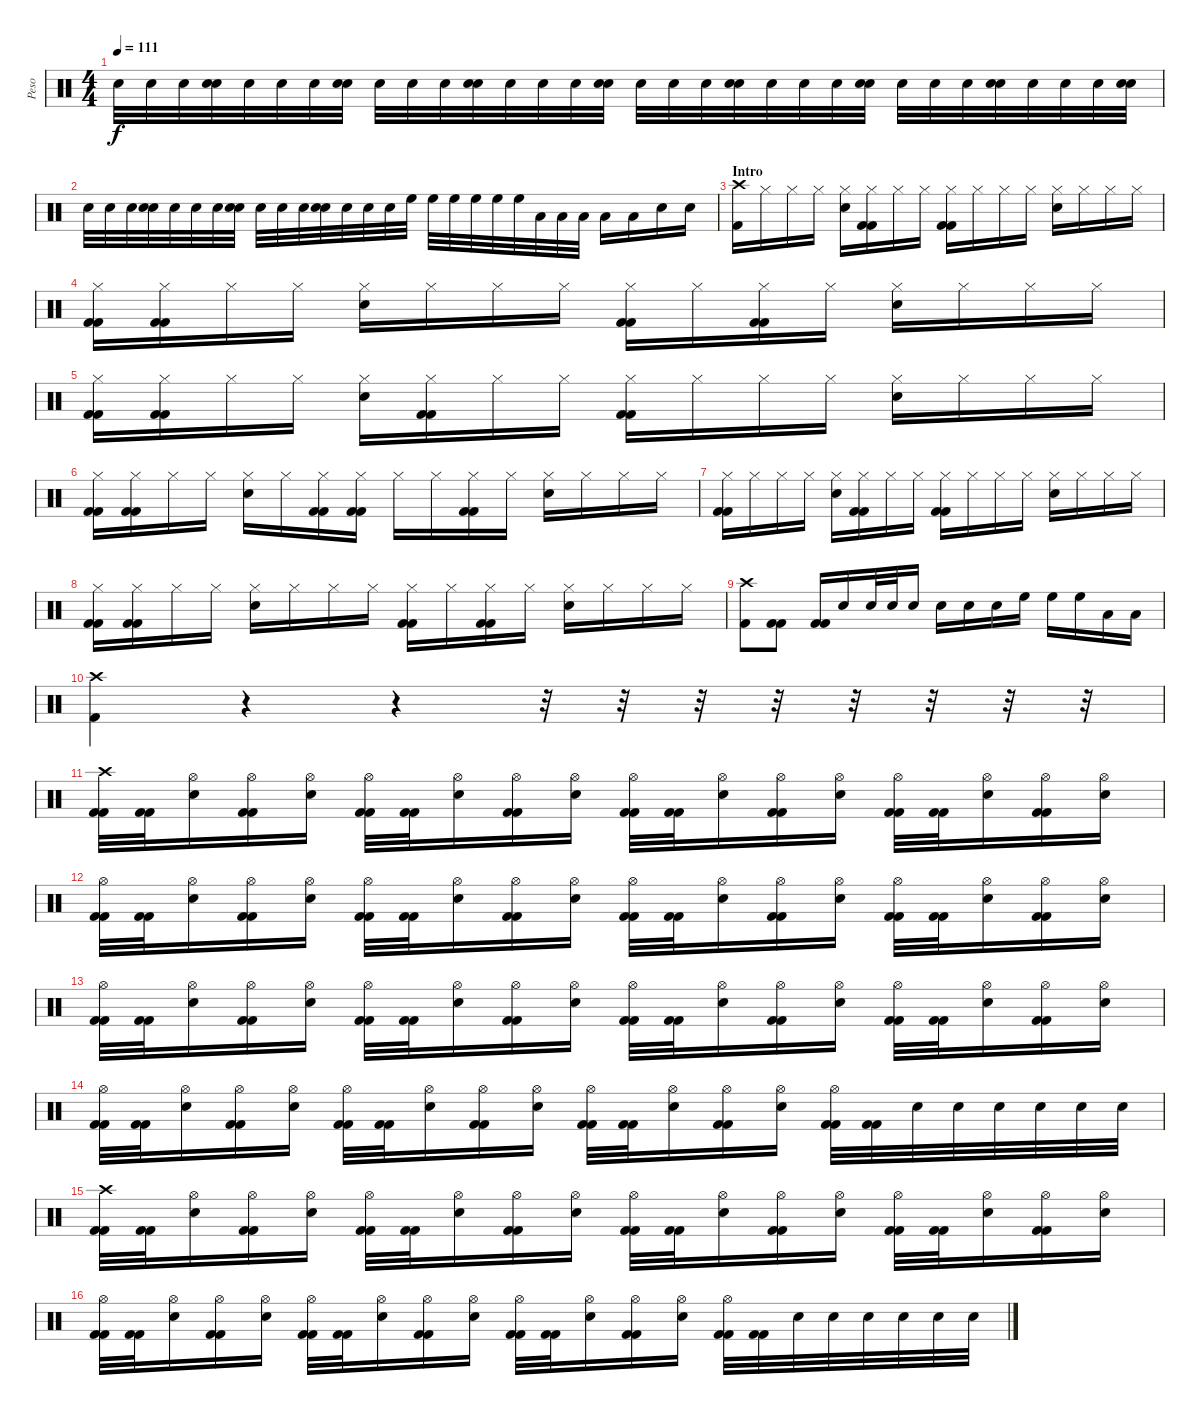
\track ("Peso" "Peso") {instrument percussion}
\staff {score}
\articulation defaults
\ts (4 4)
\tempo 111
\clef neutral
\ks c "Snare (hit) 2".32{dy f volume 3} "Snare (hit) 2".32 "Snare (hit) 2".32
("Snare (hit) 2" "Snare (hit) 2").32 "Snare (hit) 2".32{volume 6} "Snare (hit) 2".32 "Snare (hit) 2".32 ("Snare (hit) 2" "Snare (hit) 2").32 "Snare (hit) 2".32{volume 9} "Snare (hit) 2".32 "Snare (hit) 2".32 ("Snare (hit) 2" "Snare (hit) 2").32 "Snare (hit) 2".32{volume 12} "Snare (hit) 2".32 "Snare (hit) 2".32 ("Snare (hit) 2" "Snare (hit) 2").32 "Snare (hit) 2".32{volume 15} "Snare (hit) 2".32 "Snare (hit) 2".32 ("Snare (hit) 2" "Snare (hit) 2").32 "Snare (hit) 2".32 "Snare (hit) 2".32 "Snare (hit) 2".32 ("Snare (hit) 2" "Snare (hit) 2").32 "Snare (hit) 2".32 "Snare (hit) 2".32 "Snare (hit) 2".32 ("Snare (hit) 2" "Snare (hit) 2").32 "Snare (hit) 2".32 "Snare (hit) 2".32 "Snare (hit) 2".32 ("Snare (hit) 2" "Snare (hit) 2").32 |
"Snare (hit) 2".32 "Snare (hit) 2".32 "Snare (hit) 2".32 ("Snare (hit) 2" "Snare (hit) 2").32 "Snare (hit) 2".32 "Snare (hit) 2".32 "Snare (hit) 2".32 ("Snare (hit) 2" "Snare (hit) 2").32 "Snare (hit) 2".32 "Snare (hit) 2".32 "Snare (hit) 2".32 ("Snare (hit) 2" "Snare (hit) 2").32 "Snare (hit) 2".32 "Snare (hit) 2".32 "Snare (hit) 2".32 "High Floor Tom (hit)".32 "High Floor Tom (hit)".32 "High Floor Tom (hit)".32 "High Floor Tom (hit)".32 "High Floor Tom (hit)".32 "High Floor Tom (hit)".32 "Low Floor Tom (hit)".32 "Low Floor Tom (hit)".32 "Low Floor Tom (hit)".32 "Low Floor Tom (hit)".16 "Low Floor Tom (hit)".16 "Snare (hit) 2".16 "Snare (hit) 2".16 |
\section ("" "Intro")
("Crash high (hit)" "Kick (hit) 2").16 "Hi-Hat (closed)".16 "Hi-Hat (closed)".16 "Hi-Hat (closed)".16 ("Hi-Hat (closed)" "Snare (hit) 2").16 ("Hi-Hat (closed)" "Kick (hit) 2" "Kick (hit) 2").16 "Hi-Hat (closed)".16 "Hi-Hat (closed)".16 ("Hi-Hat (closed)" "Kick (hit) 2" "Kick (hit) 2").16 "Hi-Hat (closed)".16 "Hi-Hat (closed)".16 "Hi-Hat (closed)".16 ("Hi-Hat (closed)" "Snare (hit) 2").16 "Hi-Hat (closed)".16 "Hi-Hat (closed)".16 "Hi-Hat (closed)".16 |
("Hi-Hat (closed)" "Kick (hit) 2" "Kick (hit) 2").16 ("Hi-Hat (closed)" "Kick (hit) 2" "Kick (hit) 2").16 "Hi-Hat (closed)".16 "Hi-Hat (closed)".16 ("Hi-Hat (closed)" "Snare (hit) 2").16 "Hi-Hat (closed)".16 "Hi-Hat (closed)".16 "Hi-Hat (closed)".16 ("Hi-Hat (closed)" "Kick (hit) 2" "Kick (hit) 2").16 "Hi-Hat (closed)".16 ("Hi-Hat (closed)" "Kick (hit) 2" "Kick (hit) 2").16 "Hi-Hat (closed)".16 ("Hi-Hat (closed)" "Snare (hit) 2").16 "Hi-Hat (closed)".16 "Hi-Hat (closed)".16 "Hi-Hat (closed)".16 |
("Hi-Hat (closed)" "Kick (hit) 2" "Kick (hit) 2").16 ("Hi-Hat (closed)" "Kick (hit) 2" "Kick (hit) 2").16 "Hi-Hat (closed)".16 "Hi-Hat (closed)".16 ("Hi-Hat (closed)" "Snare (hit) 2").16 ("Hi-Hat (closed)" "Kick (hit) 2" "Kick (hit) 2").16 "Hi-Hat (closed)".16 "Hi-Hat (closed)".16 ("Hi-Hat (closed)" "Kick (hit) 2" "Kick (hit) 2").16 "Hi-Hat (closed)".16 "Hi-Hat (closed)".16 "Hi-Hat (closed)".16 ("Hi-Hat (closed)" "Snare (hit) 2").16 "Hi-Hat (closed)".16 "Hi-Hat (closed)".16 "Hi-Hat (closed)".16 |
("Hi-Hat (closed)" "Kick (hit) 2" "Kick (hit) 2").16 ("Hi-Hat (closed)" "Kick (hit) 2" "Kick (hit) 2").16 "Hi-Hat (closed)".16 "Hi-Hat (closed)".16 ("Hi-Hat (closed)" "Snare (hit) 2").16 "Hi-Hat (closed)".16 ("Hi-Hat (closed)" "Kick (hit) 2" "Kick (hit) 2").16 ("Hi-Hat (closed)" "Kick (hit) 2" "Kick (hit) 2").16 "Hi-Hat (closed)".16 "Hi-Hat (closed)".16 ("Hi-Hat (closed)" "Kick (hit) 2" "Kick (hit) 2").16 "Hi-Hat (closed)".16 ("Hi-Hat (closed)" "Snare (hit) 2").16 "Hi-Hat (closed)".16 "Hi-Hat (closed)".16 "Hi-Hat (closed)".16 |
("Hi-Hat (closed)" "Kick (hit) 2" "Kick (hit) 2").16 "Hi-Hat (closed)".16 "Hi-Hat (closed)".16 "Hi-Hat (closed)".16 ("Hi-Hat (closed)" "Snare (hit) 2").16 ("Hi-Hat (closed)" "Kick (hit) 2" "Kick (hit) 2").16 "Hi-Hat (closed)".16 "Hi-Hat (closed)".16 ("Hi-Hat (closed)" "Kick (hit) 2" "Kick (hit) 2").16 "Hi-Hat (closed)".16 "Hi-Hat (closed)".16 "Hi-Hat (closed)".16 ("Hi-Hat (closed)" "Snare (hit) 2").16 "Hi-Hat (closed)".16 "Hi-Hat (closed)".16 "Hi-Hat (closed)".16 |
("Hi-Hat (closed)" "Kick (hit) 2" "Kick (hit) 2").16 ("Hi-Hat (closed)" "Kick (hit) 2" "Kick (hit) 2").16 "Hi-Hat (closed)".16 "Hi-Hat (closed)".16 ("Hi-Hat (closed)" "Snare (hit) 2").16 "Hi-Hat (closed)".16 "Hi-Hat (closed)".16 "Hi-Hat (closed)".16 ("Hi-Hat (closed)" "Kick (hit) 2" "Kick (hit) 2").16 "Hi-Hat (closed)".16 ("Hi-Hat (closed)" "Kick (hit) 2" "Kick (hit) 2").16 "Hi-Hat (closed)".16 ("Hi-Hat (closed)" "Snare (hit) 2").16 "Hi-Hat (closed)".16 "Hi-Hat (closed)".16 "Hi-Hat (closed)".16 |
("Crash high (hit)" "Kick (hit) 2").8 ("Kick (hit) 2" "Kick (hit) 2").8 ("Kick (hit) 2" "Kick (hit) 2").16 "Snare (hit) 2".16 "Snare (hit) 2".32 "Snare (hit) 2".32 "Snare (hit) 2".16 "Snare (hit) 2".16 "Snare (hit) 2".16 "Snare (hit) 2".16 "High Floor Tom (hit)".16 "High Floor Tom (hit)".16 "High Floor Tom (hit)".16 "Low Floor Tom (hit)".16 "Low Floor Tom (hit)".16 |
("Crash high (hit)" "Kick (hit) 2").4 r.4 r.4 r.32 r.32 r.32 r.32 r.32 r.32 r.32 r.32 |
("Crash high (hit)" "Kick (hit) 2" "Kick (hit) 2").32 ("Kick (hit) 2" "Kick (hit) 2").32 ("Hi-Hat (open)" "Snare (hit) 2").16 ("Hi-Hat (open)" "Kick (hit) 2" "Kick (hit) 2").16 ("Hi-Hat (open)" "Snare (hit) 2").16 ("Hi-Hat (open)" "Kick (hit) 2" "Kick (hit) 2").32 ("Kick (hit) 2" "Kick (hit) 2").32 ("Hi-Hat (open)" "Snare (hit) 2").16 ("Hi-Hat (open)" "Kick (hit) 2" "Kick (hit) 2").16 ("Hi-Hat (open)" "Snare (hit) 2").16 ("Hi-Hat (open)" "Kick (hit) 2" "Kick (hit) 2").32 ("Kick (hit) 2" "Kick (hit) 2").32 ("Hi-Hat (open)" "Snare (hit) 2").16 ("Hi-Hat (open)" "Kick (hit) 2" "Kick (hit) 2").16 ("Hi-Hat (open)" "Snare (hit) 2").16 ("Hi-Hat (open)" "Kick (hit) 2" "Kick (hit) 2").32 ("Kick (hit) 2" "Kick (hit) 2").32 ("Hi-Hat (open)" "Snare (hit) 2").16 ("Hi-Hat (open)" "Kick (hit) 2" "Kick (hit) 2").16 ("Hi-Hat (open)" "Snare (hit) 2").16 |
("Hi-Hat (open)" "Kick (hit) 2" "Kick (hit) 2").32 ("Kick (hit) 2" "Kick (hit) 2").32 ("Hi-Hat (open)" "Snare (hit) 2").16 ("Hi-Hat (open)" "Kick (hit) 2" "Kick (hit) 2").16 ("Hi-Hat (open)" "Snare (hit) 2").16 ("Hi-Hat (open)" "Kick (hit) 2" "Kick (hit) 2").32 ("Kick (hit) 2" "Kick (hit) 2").32 ("Hi-Hat (open)" "Snare (hit) 2").16 ("Hi-Hat (open)" "Kick (hit) 2" "Kick (hit) 2").16 ("Hi-Hat (open)" "Snare (hit) 2").16 ("Hi-Hat (open)" "Kick (hit) 2" "Kick (hit) 2").32 ("Kick (hit) 2" "Kick (hit) 2").32 ("Hi-Hat (open)" "Snare (hit) 2").16 ("Hi-Hat (open)" "Kick (hit) 2" "Kick (hit) 2").16 ("Hi-Hat (open)" "Snare (hit) 2").16 ("Hi-Hat (open)" "Kick (hit) 2" "Kick (hit) 2").32 ("Kick (hit) 2" "Kick (hit) 2").32 ("Hi-Hat (open)" "Snare (hit) 2").16 ("Hi-Hat (open)" "Kick (hit) 2" "Kick (hit) 2").16 ("Hi-Hat (open)" "Snare (hit) 2").16 |
("Hi-Hat (open)" "Kick (hit) 2" "Kick (hit) 2").32 ("Kick (hit) 2" "Kick (hit) 2").32 ("Hi-Hat (open)" "Snare (hit) 2").16 ("Hi-Hat (open)" "Kick (hit) 2" "Kick (hit) 2").16 ("Hi-Hat (open)" "Snare (hit) 2").16 ("Hi-Hat (open)" "Kick (hit) 2" "Kick (hit) 2").32 ("Kick (hit) 2" "Kick (hit) 2").32 ("Hi-Hat (open)" "Snare (hit) 2").16 ("Hi-Hat (open)" "Kick (hit) 2" "Kick (hit) 2").16 ("Hi-Hat (open)" "Snare (hit) 2").16 ("Hi-Hat (open)" "Kick (hit) 2" "Kick (hit) 2").32 ("Kick (hit) 2" "Kick (hit) 2").32 ("Hi-Hat (open)" "Snare (hit) 2").16 ("Hi-Hat (open)" "Kick (hit) 2" "Kick (hit) 2").16 ("Hi-Hat (open)" "Snare (hit) 2").16 ("Hi-Hat (open)" "Kick (hit) 2" "Kick (hit) 2").32 ("Kick (hit) 2" "Kick (hit) 2").32 ("Hi-Hat (open)" "Snare (hit) 2").16 ("Hi-Hat (open)" "Kick (hit) 2" "Kick (hit) 2").16 ("Hi-Hat (open)" "Snare (hit) 2").16 |
("Hi-Hat (open)" "Kick (hit) 2" "Kick (hit) 2").32 ("Kick (hit) 2" "Kick (hit) 2").32 ("Hi-Hat (open)" "Snare (hit) 2").16 ("Hi-Hat (open)" "Kick (hit) 2" "Kick (hit) 2").16 ("Hi-Hat (open)" "Snare (hit) 2").16 ("Hi-Hat (open)" "Kick (hit) 2" "Kick (hit) 2").32 ("Kick (hit) 2" "Kick (hit) 2").32 ("Hi-Hat (open)" "Snare (hit) 2").16 ("Hi-Hat (open)" "Kick (hit) 2" "Kick (hit) 2").16 ("Hi-Hat (open)" "Snare (hit) 2").16 ("Hi-Hat (open)" "Kick (hit) 2" "Kick (hit) 2").32 ("Kick (hit) 2" "Kick (hit) 2").32 ("Hi-Hat (open)" "Snare (hit) 2").16 ("Hi-Hat (open)" "Kick (hit) 2" "Kick (hit) 2").16 ("Hi-Hat (open)" "Snare (hit) 2").16 ("Hi-Hat (open)" "Kick (hit) 2" "Kick (hit) 2").32 ("Kick (hit) 2" "Kick (hit) 2").32 "Snare (hit) 2".32 "Snare (hit) 2".32 "Snare (hit) 2".32 "Snare (hit) 2".32 "Snare (hit) 2".32 "Snare (hit) 2".32 |
("Crash high (hit)" "Kick (hit) 2" "Kick (hit) 2").32 ("Kick (hit) 2" "Kick (hit) 2").32 ("Hi-Hat (open)" "Snare (hit) 2").16 ("Hi-Hat (open)" "Kick (hit) 2" "Kick (hit) 2").16 ("Hi-Hat (open)" "Snare (hit) 2").16 ("Hi-Hat (open)" "Kick (hit) 2" "Kick (hit) 2").32 ("Kick (hit) 2" "Kick (hit) 2").32 ("Hi-Hat (open)" "Snare (hit) 2").16 ("Hi-Hat (open)" "Kick (hit) 2" "Kick (hit) 2").16 ("Hi-Hat (open)" "Snare (hit) 2").16 ("Hi-Hat (open)" "Kick (hit) 2" "Kick (hit) 2").32 ("Kick (hit) 2" "Kick (hit) 2").32 ("Hi-Hat (open)" "Snare (hit) 2").16 ("Hi-Hat (open)" "Kick (hit) 2" "Kick (hit) 2").16 ("Hi-Hat (open)" "Snare (hit) 2").16 ("Hi-Hat (open)" "Kick (hit) 2" "Kick (hit) 2").32 ("Kick (hit) 2" "Kick (hit) 2").32 ("Hi-Hat (open)" "Snare (hit) 2").16 ("Hi-Hat (open)" "Kick (hit) 2" "Kick (hit) 2").16 ("Hi-Hat (open)" "Snare (hit) 2").16 |
("Hi-Hat (open)" "Kick (hit) 2" "Kick (hit) 2").32 ("Kick (hit) 2" "Kick (hit) 2").32 ("Hi-Hat (open)" "Snare (hit) 2").16 ("Hi-Hat (open)" "Kick (hit) 2" "Kick (hit) 2").16 ("Hi-Hat (open)" "Snare (hit) 2").16 ("Hi-Hat (open)" "Kick (hit) 2" "Kick (hit) 2").32 ("Kick (hit) 2" "Kick (hit) 2").32 ("Hi-Hat (open)" "Snare (hit) 2").16 ("Hi-Hat (open)" "Kick (hit) 2" "Kick (hit) 2").16 ("Hi-Hat (open)" "Snare (hit) 2").16 ("Hi-Hat (open)" "Kick (hit) 2" "Kick (hit) 2").32 ("Kick (hit) 2" "Kick (hit) 2").32 ("Hi-Hat (open)" "Snare (hit) 2").16 ("Hi-Hat (open)" "Kick (hit) 2" "Kick (hit) 2").16 ("Hi-Hat (open)" "Snare (hit) 2").16 ("Hi-Hat (open)" "Kick (hit) 2" "Kick (hit) 2").32 ("Kick (hit) 2" "Kick (hit) 2").32 "Snare (hit) 2".32 "Snare (hit) 2".32 "Snare (hit) 2".32 "Snare (hit) 2".32 "Snare (hit) 2".32 "Snare (hit) 2".32
